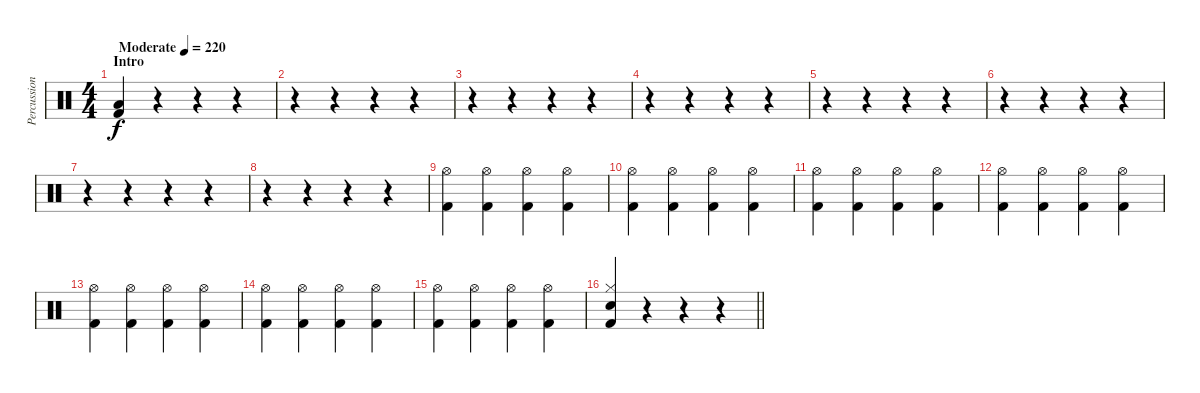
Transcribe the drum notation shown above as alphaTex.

\track ("Percussion" "Percussion") {instrument percussion}
\staff {score}
\articulation defaults
\ts (4 4)
\section ("" "Intro")
\tempo (220 "Moderate")
\clef neutral
\ks c
("Low Floor Tom (hit)" "Kick (hit) 2").4{dy f} r.4 r.4 r.4 |
r.4 r.4 r.4 r.4 |
r.4 r.4 r.4 r.4 |
r.4 r.4 r.4 r.4 |
r.4 r.4 r.4 r.4 |
r.4 r.4 r.4 r.4 |
r.4 r.4 r.4 r.4 |
r.4 r.4 r.4 r.4 |
("Hi-Hat (open)" "Kick (hit) 2").4 ("Hi-Hat (open)" "Kick (hit) 2").4 ("Hi-Hat (open)" "Kick (hit) 2").4 ("Hi-Hat (open)" "Kick (hit) 2").4 |
("Hi-Hat (open)" "Kick (hit) 2").4 ("Hi-Hat (open)" "Kick (hit) 2").4 ("Hi-Hat (open)" "Kick (hit) 2").4 ("Hi-Hat (open)" "Kick (hit) 2").4 |
("Hi-Hat (open)" "Kick (hit) 2").4 ("Hi-Hat (open)" "Kick (hit) 2").4 ("Hi-Hat (open)" "Kick (hit) 2").4 ("Hi-Hat (open)" "Kick (hit) 2").4 |
("Hi-Hat (open)" "Kick (hit) 2").4 ("Hi-Hat (open)" "Kick (hit) 2").4 ("Hi-Hat (open)" "Kick (hit) 2").4 ("Hi-Hat (open)" "Kick (hit) 2").4 |
("Hi-Hat (open)" "Kick (hit) 2").4 ("Hi-Hat (open)" "Kick (hit) 2").4 ("Hi-Hat (open)" "Kick (hit) 2").4 ("Hi-Hat (open)" "Kick (hit) 2").4 |
("Hi-Hat (open)" "Kick (hit) 2").4 ("Hi-Hat (open)" "Kick (hit) 2").4 ("Hi-Hat (open)" "Kick (hit) 2").4 ("Hi-Hat (open)" "Kick (hit) 2").4 |
("Hi-Hat (open)" "Kick (hit) 2").4 ("Hi-Hat (open)" "Kick (hit) 2").4 ("Hi-Hat (open)" "Kick (hit) 2").4 ("Hi-Hat (open)" "Kick (hit) 2").4 |
\barLineRight lightlight
("Hi-Hat (closed)" "Electric Snare (hit)" "Kick (hit) 2").4 r.4 r.4 r.4
